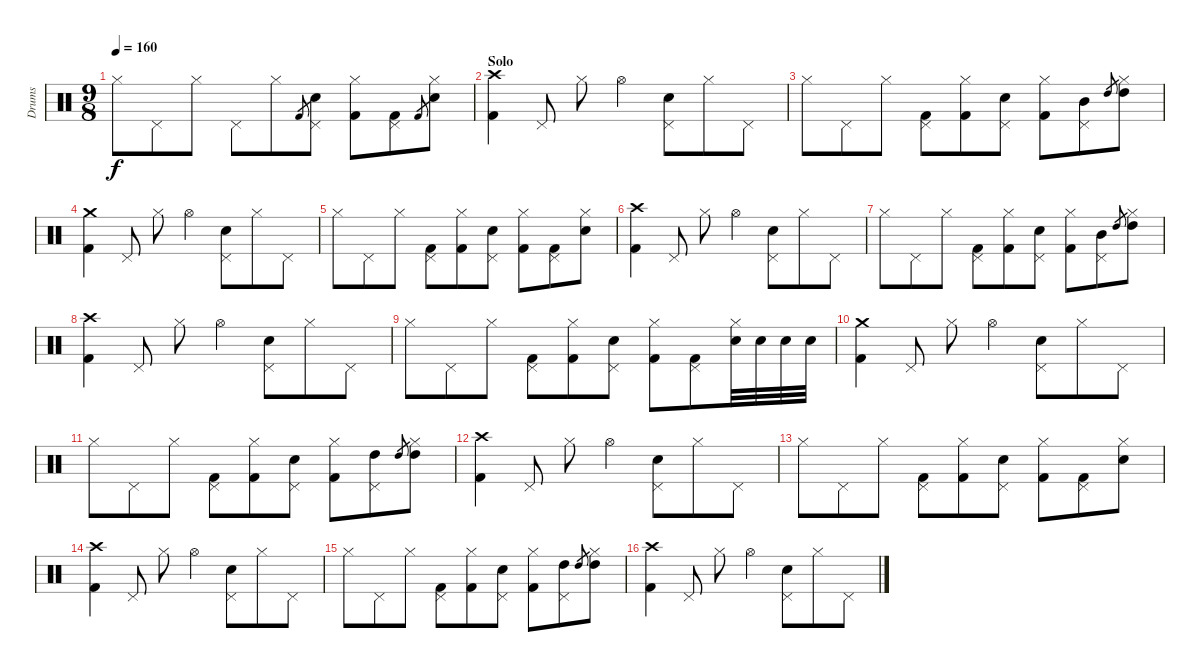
\track ("Drums" "Drums") {instrument percussion}
\staff {score}
\articulation defaults
\ts (9 8)
\tempo 160
\clef neutral
\ks c "Hi-Hat (closed)".8{dy f} "Pedal Hi-Hat (hit)".8 "Hi-Hat (closed)".8 "Pedal Hi-Hat (hit)".8 "Hi-Hat (closed)".8 "Kick (hit) 2".8{gr}
("Pedal Hi-Hat (hit)" "Electric Snare (hit)").8 ("Hi-Hat (closed)" "Kick (hit) 2").8 ("Pedal Hi-Hat (hit)" "Kick (hit) 2").8 "Kick (hit) 2".8{gr} ("Hi-Hat (closed)" "Electric Snare (hit)").8 |
\section ("" "Solo")
("Crash high (hit)" "Kick (hit) 2").4 "Pedal Hi-Hat (hit)".8 "Hi-Hat (closed)".8 "Hi-Hat (open)".4 ("Pedal Hi-Hat (hit)" "Electric Snare (hit)").8 "Hi-Hat (closed)".8 "Pedal Hi-Hat (hit)".8 |
"Hi-Hat (closed)".8 "Pedal Hi-Hat (hit)".8 "Hi-Hat (closed)".8 ("Pedal Hi-Hat (hit)" "Kick (hit) 2").8 ("Hi-Hat (closed)" "Kick (hit) 2").8 ("Pedal Hi-Hat (hit)" "Electric Snare (hit)").8 ("Hi-Hat (closed)" "Kick (hit) 2").8 ("Pedal Hi-Hat (hit)" "Mid Tom (hit)").8 "High Tom (hit)".8{gr} ("Hi-Hat (closed)" "High Tom (hit)").8 |
("Crash medium (hit)" "Kick (hit) 2").4 "Pedal Hi-Hat (hit)".8 "Hi-Hat (closed)".8 "Hi-Hat (open)".4 ("Pedal Hi-Hat (hit)" "Electric Snare (hit)").8 "Hi-Hat (closed)".8 "Pedal Hi-Hat (hit)".8 |
"Hi-Hat (closed)".8 "Pedal Hi-Hat (hit)".8 "Hi-Hat (closed)".8 ("Pedal Hi-Hat (hit)" "Kick (hit) 2").8 ("Hi-Hat (closed)" "Kick (hit) 2").8 ("Pedal Hi-Hat (hit)" "Electric Snare (hit)").8 ("Hi-Hat (closed)" "Kick (hit) 2").8 ("Pedal Hi-Hat (hit)" "Kick (hit) 2").8 ("Hi-Hat (closed)" "Electric Snare (hit)").8 |
("Crash high (hit)" "Kick (hit) 2").4 "Pedal Hi-Hat (hit)".8 "Hi-Hat (closed)".8 "Hi-Hat (open)".4 ("Pedal Hi-Hat (hit)" "Electric Snare (hit)").8 "Hi-Hat (closed)".8 "Pedal Hi-Hat (hit)".8 |
"Hi-Hat (closed)".8 "Pedal Hi-Hat (hit)".8 "Hi-Hat (closed)".8 ("Pedal Hi-Hat (hit)" "Kick (hit) 2").8 ("Hi-Hat (closed)" "Kick (hit) 2").8 ("Pedal Hi-Hat (hit)" "Electric Snare (hit)").8 ("Hi-Hat (closed)" "Kick (hit) 2").8 ("Pedal Hi-Hat (hit)" "Mid Tom (hit)").8 "High Tom (hit)".8{gr} ("Hi-Hat (closed)" "High Tom (hit)").8 |
("Crash high (hit)" "Kick (hit) 2").4 "Pedal Hi-Hat (hit)".8 "Hi-Hat (closed)".8 "Hi-Hat (open)".4 ("Pedal Hi-Hat (hit)" "Electric Snare (hit)").8 "Hi-Hat (closed)".8 "Pedal Hi-Hat (hit)".8 |
"Hi-Hat (closed)".8 "Pedal Hi-Hat (hit)".8 "Hi-Hat (closed)".8 ("Pedal Hi-Hat (hit)" "Kick (hit) 2").8 ("Hi-Hat (closed)" "Kick (hit) 2").8 ("Pedal Hi-Hat (hit)" "Electric Snare (hit)").8 ("Hi-Hat (closed)" "Kick (hit) 2").8 ("Pedal Hi-Hat (hit)" "Kick (hit) 2").8 ("Hi-Hat (closed)" "Electric Snare (hit)").32 "Electric Snare (hit)".32 "Electric Snare (hit)".32 "Electric Snare (hit)".32 |
("Crash medium (hit)" "Kick (hit) 2").4 "Pedal Hi-Hat (hit)".8 "Hi-Hat (closed)".8 "Hi-Hat (open)".4 ("Pedal Hi-Hat (hit)" "Electric Snare (hit)").8 "Hi-Hat (closed)".8 "Pedal Hi-Hat (hit)".8 |
"Hi-Hat (closed)".8 "Pedal Hi-Hat (hit)".8 "Hi-Hat (closed)".8 ("Pedal Hi-Hat (hit)" "Kick (hit) 2").8 ("Hi-Hat (closed)" "Kick (hit) 2").8 ("Pedal Hi-Hat (hit)" "Electric Snare (hit)").8 ("Hi-Hat (closed)" "Kick (hit) 2").8 ("Pedal Hi-Hat (hit)" "High Tom (hit)").8 "High Tom (hit)".8{gr} ("Hi-Hat (closed)" "High Tom (hit)").8 |
("Crash high (hit)" "Kick (hit) 2").4 "Pedal Hi-Hat (hit)".8 "Hi-Hat (closed)".8 "Hi-Hat (open)".4 ("Pedal Hi-Hat (hit)" "Electric Snare (hit)").8 "Hi-Hat (closed)".8 "Pedal Hi-Hat (hit)".8 |
"Hi-Hat (closed)".8 "Pedal Hi-Hat (hit)".8 "Hi-Hat (closed)".8 ("Pedal Hi-Hat (hit)" "Kick (hit) 2").8 ("Hi-Hat (closed)" "Kick (hit) 2").8 ("Pedal Hi-Hat (hit)" "Electric Snare (hit)").8 ("Hi-Hat (closed)" "Kick (hit) 2").8 ("Pedal Hi-Hat (hit)" "Kick (hit) 2").8 ("Hi-Hat (closed)" "Electric Snare (hit)").8 |
("Crash high (hit)" "Kick (hit) 2").4 "Pedal Hi-Hat (hit)".8 "Hi-Hat (closed)".8 "Hi-Hat (open)".4 ("Pedal Hi-Hat (hit)" "Electric Snare (hit)").8 "Hi-Hat (closed)".8 "Pedal Hi-Hat (hit)".8 |
"Hi-Hat (closed)".8 "Pedal Hi-Hat (hit)".8 "Hi-Hat (closed)".8 ("Pedal Hi-Hat (hit)" "Kick (hit) 2").8 ("Hi-Hat (closed)" "Kick (hit) 2").8 ("Pedal Hi-Hat (hit)" "Electric Snare (hit)").8 ("Hi-Hat (closed)" "Kick (hit) 2").8 ("Pedal Hi-Hat (hit)" "High Tom (hit)").8 "High Tom (hit)".8{gr} ("Hi-Hat (closed)" "High Tom (hit)").8 |
("Crash high (hit)" "Kick (hit) 2").4 "Pedal Hi-Hat (hit)".8 "Hi-Hat (closed)".8 "Hi-Hat (open)".4 ("Pedal Hi-Hat (hit)" "Electric Snare (hit)").8 "Hi-Hat (closed)".8 "Pedal Hi-Hat (hit)".8
